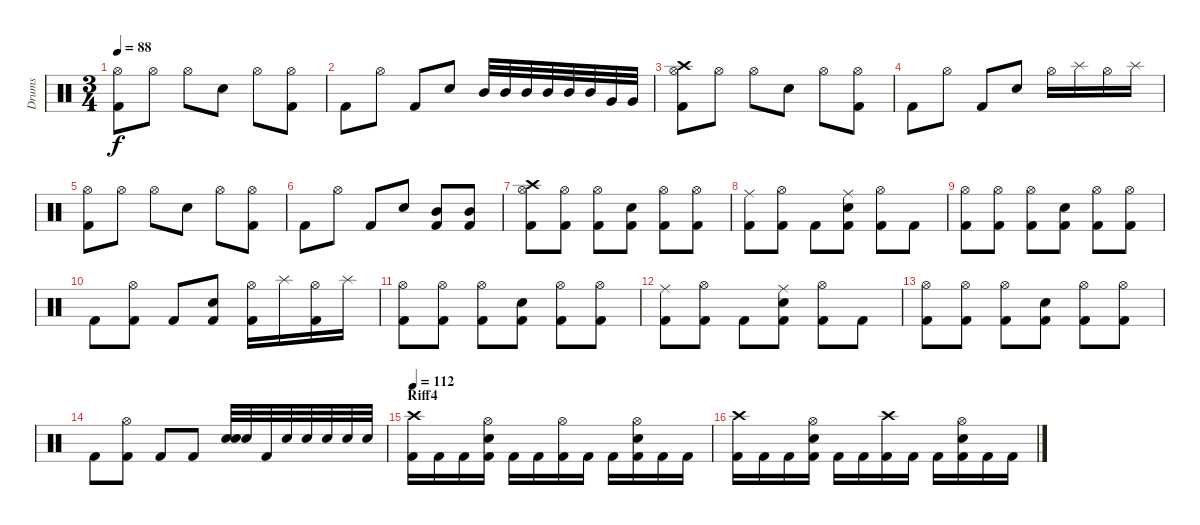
\track ("Drums" "Drums") {instrument percussion}
\staff {score}
\articulation defaults
\ts (3 4)
\tempo 88
\clef neutral
\ks c
("Hi-Hat (open)" "Kick (hit) 2").8{dy f} "Hi-Hat (open)".8 "Hi-Hat (open)".8 "Snare (hit) 2".8 "Hi-Hat (open)".8 ("Hi-Hat (open)" "Kick (hit) 2").8 |
"Kick (hit) 2".8 "Hi-Hat (open)".8 "Kick (hit) 2".8 "Snare (hit) 2".8 "Mid Tom (hit)".32 "Mid Tom (hit)".32 "Mid Tom (hit)".32 "Mid Tom (hit)".32 "Mid Tom (hit)".32 "Mid Tom (hit)".32 "Very Low Tom (hit)".32 "Very Low Tom (hit)".32 |
("Hi-Hat (open)" "Crash high (hit)" "Kick (hit) 2").8 "Hi-Hat (open)".8 "Hi-Hat (open)".8 "Snare (hit) 2".8 "Hi-Hat (open)".8 ("Hi-Hat (open)" "Kick (hit) 2").8 |
"Kick (hit) 2".8 "Hi-Hat (open)".8 "Kick (hit) 2".8 "Snare (hit) 2".8 "Hi-Hat (open)".16 "Splash (hit)".16 "Hi-Hat (open)".16 "Splash (hit)".16 |
("Hi-Hat (open)" "Kick (hit) 2").8 "Hi-Hat (open)".8 "Hi-Hat (open)".8 "Snare (hit) 2".8 "Hi-Hat (open)".8 ("Hi-Hat (open)" "Kick (hit) 2").8 |
"Kick (hit) 2".8 "Hi-Hat (open)".8 "Kick (hit) 2".8 "Snare (hit) 2".8 ("Mid Tom (hit)" "Kick (hit) 2").8 ("Mid Tom (hit)" "Kick (hit) 2").8 |
("Hi-Hat (open)" "Crash high (hit)" "Kick (hit) 2").8 ("Hi-Hat (open)" "Kick (hit) 2").8 ("Hi-Hat (open)" "Kick (hit) 2").8 ("Snare (hit) 2" "Kick (hit) 2").8 ("Hi-Hat (open)" "Kick (hit) 2").8 ("Hi-Hat (open)" "Kick (hit) 2").8 |
("Ride (middle)" "Kick (hit) 2").8 ("Hi-Hat (open)" "Kick (hit) 2").8 "Kick (hit) 2".8 ("Ride (middle)" "Snare (hit) 2" "Kick (hit) 2").8 ("Hi-Hat (open)" "Kick (hit) 2").8 "Kick (hit) 2".8 |
("Hi-Hat (open)" "Kick (hit) 2").8 ("Hi-Hat (open)" "Kick (hit) 2").8 ("Hi-Hat (open)" "Kick (hit) 2").8 ("Snare (hit) 2" "Kick (hit) 2").8 ("Hi-Hat (open)" "Kick (hit) 2").8 ("Hi-Hat (open)" "Kick (hit) 2").8 |
"Kick (hit) 2".8 ("Hi-Hat (open)" "Kick (hit) 2").8 "Kick (hit) 2".8 ("Snare (hit) 2" "Kick (hit) 2").8 ("Hi-Hat (open)" "Kick (hit) 2").16 "Splash (hit)".16 ("Hi-Hat (open)" "Kick (hit) 2").16 "Splash (hit)".16 |
("Hi-Hat (open)" "Kick (hit) 2").8 ("Hi-Hat (open)" "Kick (hit) 2").8 ("Hi-Hat (open)" "Kick (hit) 2").8 ("Snare (hit) 2" "Kick (hit) 2").8 ("Hi-Hat (open)" "Kick (hit) 2").8 ("Hi-Hat (open)" "Kick (hit) 2").8 |
("Ride (middle)" "Kick (hit) 2").8 ("Hi-Hat (open)" "Kick (hit) 2").8 "Kick (hit) 2".8 ("Ride (middle)" "Snare (hit) 2" "Kick (hit) 2").8 ("Hi-Hat (open)" "Kick (hit) 2").8 "Kick (hit) 2".8 |
("Hi-Hat (open)" "Kick (hit) 2").8 ("Hi-Hat (open)" "Kick (hit) 2").8 ("Hi-Hat (open)" "Kick (hit) 2").8 ("Snare (hit) 2" "Kick (hit) 2").8 ("Hi-Hat (open)" "Kick (hit) 2").8 ("Hi-Hat (open)" "Kick (hit) 2").8 |
"Kick (hit) 2".8 ("Hi-Hat (open)" "Kick (hit) 2").8 "Kick (hit) 2".8 "Kick (hit) 2".8 ("Snare (hit) 2" "Snare (hit) 2").32 "Snare (hit) 2".32 "Kick (hit) 2".32 "Snare (hit) 2".32 "Snare (hit) 2".32 "Snare (hit) 2".32 "Snare (hit) 2".32 "Snare (hit) 2".32 |
\section ("" "Riff4")
\tempo 112
("Crash high (hit)" "Kick (hit) 2").16 "Kick (hit) 2".16 "Kick (hit) 2".16 ("Hi-Hat (open)" "Snare (hit) 2" "Kick (hit) 2").16 "Kick (hit) 2".16 "Kick (hit) 2".16 ("Hi-Hat (open)" "Kick (hit) 2").16 "Kick (hit) 2".16 "Kick (hit) 2".16 ("Hi-Hat (open)" "Snare (hit) 2" "Kick (hit) 2").16 "Kick (hit) 2".16 "Kick (hit) 2".16 |
("Crash high (hit)" "Kick (hit) 2").16 "Kick (hit) 2".16 "Kick (hit) 2".16 ("Hi-Hat (open)" "Snare (hit) 2" "Kick (hit) 2").16 "Kick (hit) 2".16 "Kick (hit) 2".16 ("Crash high (hit)" "Kick (hit) 2").16 "Kick (hit) 2".16 "Kick (hit) 2".16 ("Hi-Hat (open)" "Snare (hit) 2" "Kick (hit) 2").16 "Kick (hit) 2".16 "Kick (hit) 2".16
